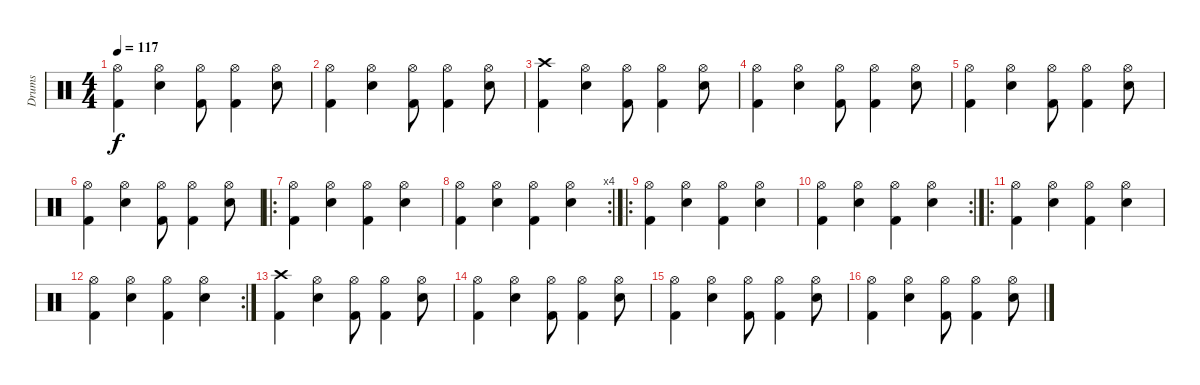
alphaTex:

\track ("Drums" "Drums") {instrument percussion}
\staff {score}
\articulation defaults
\ts (4 4)
\tempo 117
\clef neutral
\ks c
("Hi-Hat (open)" "Kick (hit) 2").4{dy f} ("Hi-Hat (open)" "Snare (hit) 2").4 ("Hi-Hat (open)" "Kick (hit) 2").8 ("Hi-Hat (open)" "Kick (hit) 2").4 ("Hi-Hat (open)" "Snare (hit) 2").8 |
("Hi-Hat (open)" "Kick (hit) 2").4 ("Hi-Hat (open)" "Snare (hit) 2").4 ("Hi-Hat (open)" "Kick (hit) 2").8 ("Hi-Hat (open)" "Kick (hit) 2").4 ("Hi-Hat (open)" "Snare (hit) 2").8 |
("Crash high (hit)" "Kick (hit) 2").4 ("Hi-Hat (open)" "Snare (hit) 2").4 ("Hi-Hat (open)" "Kick (hit) 2").8 ("Hi-Hat (open)" "Kick (hit) 2").4 ("Hi-Hat (open)" "Snare (hit) 2").8 |
("Hi-Hat (open)" "Kick (hit) 2").4 ("Hi-Hat (open)" "Snare (hit) 2").4 ("Hi-Hat (open)" "Kick (hit) 2").8 ("Hi-Hat (open)" "Kick (hit) 2").4 ("Hi-Hat (open)" "Snare (hit) 2").8 |
("Hi-Hat (open)" "Kick (hit) 2").4 ("Hi-Hat (open)" "Snare (hit) 2").4 ("Hi-Hat (open)" "Kick (hit) 2").8 ("Hi-Hat (open)" "Kick (hit) 2").4 ("Hi-Hat (open)" "Snare (hit) 2").8 |
("Hi-Hat (open)" "Kick (hit) 2").4 ("Hi-Hat (open)" "Snare (hit) 2").4 ("Hi-Hat (open)" "Kick (hit) 2").8 ("Hi-Hat (open)" "Kick (hit) 2").4 ("Hi-Hat (open)" "Snare (hit) 2").8 |
\ro
("Hi-Hat (open)" "Kick (hit) 2").4{volume 11} ("Hi-Hat (open)" "Snare (hit) 2").4 ("Hi-Hat (open)" "Kick (hit) 2").4 ("Hi-Hat (open)" "Snare (hit) 2").4 |
\rc 4
("Hi-Hat (open)" "Kick (hit) 2").4 ("Hi-Hat (open)" "Snare (hit) 2").4 ("Hi-Hat (open)" "Kick (hit) 2").4 ("Hi-Hat (open)" "Snare (hit) 2").4 |
\ro
("Hi-Hat (open)" "Kick (hit) 2").4{volume 14} ("Hi-Hat (open)" "Snare (hit) 2").4 ("Hi-Hat (open)" "Kick (hit) 2").4 ("Hi-Hat (open)" "Snare (hit) 2").4 |
\rc 2
("Hi-Hat (open)" "Kick (hit) 2").4 ("Hi-Hat (open)" "Snare (hit) 2").4 ("Hi-Hat (open)" "Kick (hit) 2").4 ("Hi-Hat (open)" "Snare (hit) 2").4 |
\ro
("Hi-Hat (open)" "Kick (hit) 2").4{volume 14} ("Hi-Hat (open)" "Snare (hit) 2").4 ("Hi-Hat (open)" "Kick (hit) 2").4 ("Hi-Hat (open)" "Snare (hit) 2").4 |
\rc 2
("Hi-Hat (open)" "Kick (hit) 2").4 ("Hi-Hat (open)" "Snare (hit) 2").4 ("Hi-Hat (open)" "Kick (hit) 2").4 ("Hi-Hat (open)" "Snare (hit) 2").4 |
("Crash high (hit)" "Kick (hit) 2").4 ("Hi-Hat (open)" "Snare (hit) 2").4 ("Hi-Hat (open)" "Kick (hit) 2").8 ("Hi-Hat (open)" "Kick (hit) 2").4 ("Hi-Hat (open)" "Snare (hit) 2").8 |
("Hi-Hat (open)" "Kick (hit) 2").4 ("Hi-Hat (open)" "Snare (hit) 2").4 ("Hi-Hat (open)" "Kick (hit) 2").8 ("Hi-Hat (open)" "Kick (hit) 2").4 ("Hi-Hat (open)" "Snare (hit) 2").8 |
("Hi-Hat (open)" "Kick (hit) 2").4 ("Hi-Hat (open)" "Snare (hit) 2").4 ("Hi-Hat (open)" "Kick (hit) 2").8 ("Hi-Hat (open)" "Kick (hit) 2").4 ("Hi-Hat (open)" "Snare (hit) 2").8 |
("Hi-Hat (open)" "Kick (hit) 2").4 ("Hi-Hat (open)" "Snare (hit) 2").4 ("Hi-Hat (open)" "Kick (hit) 2").8 ("Hi-Hat (open)" "Kick (hit) 2").4 ("Hi-Hat (open)" "Snare (hit) 2").8
